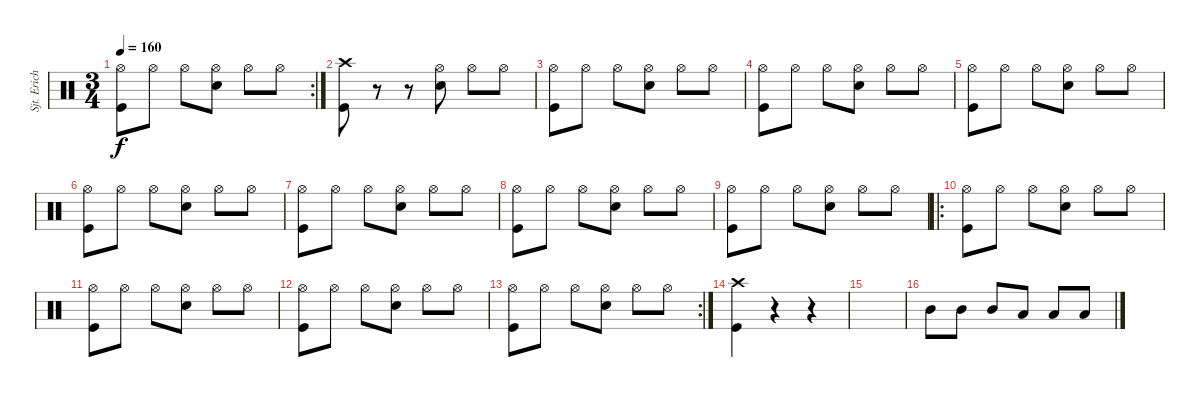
\track ("Sjt. Erichsen" "Sjt. Erich") {instrument percussion}
\staff {score}
\articulation defaults
\rc 2
\ts (3 4)
\tempo 160
\clef neutral
\ks c
("Hi-Hat (open)" "Kick (hit)").8{dy f} "Hi-Hat (open)".8 "Hi-Hat (open)".8 ("Hi-Hat (open)" "Electric Snare (hit)").8 "Hi-Hat (open)".8 "Hi-Hat (open)".8 |
("Crash high (hit)" "Kick (hit)").8 r.8 r.8 ("Hi-Hat (open)" "Electric Snare (hit)").8 "Hi-Hat (open)".8 "Hi-Hat (open)".8 |
("Hi-Hat (open)" "Kick (hit)").8 "Hi-Hat (open)".8 "Hi-Hat (open)".8 ("Hi-Hat (open)" "Electric Snare (hit)").8 "Hi-Hat (open)".8 "Hi-Hat (open)".8 |
("Hi-Hat (open)" "Kick (hit)").8 "Hi-Hat (open)".8 "Hi-Hat (open)".8 ("Hi-Hat (open)" "Electric Snare (hit)").8 "Hi-Hat (open)".8 "Hi-Hat (open)".8 |
("Hi-Hat (open)" "Kick (hit)").8 "Hi-Hat (open)".8 "Hi-Hat (open)".8 ("Hi-Hat (open)" "Electric Snare (hit)").8 "Hi-Hat (open)".8 "Hi-Hat (open)".8 |
("Hi-Hat (open)" "Kick (hit)").8 "Hi-Hat (open)".8 "Hi-Hat (open)".8 ("Hi-Hat (open)" "Electric Snare (hit)").8 "Hi-Hat (open)".8 "Hi-Hat (open)".8 |
("Hi-Hat (open)" "Kick (hit)").8 "Hi-Hat (open)".8 "Hi-Hat (open)".8 ("Hi-Hat (open)" "Electric Snare (hit)").8 "Hi-Hat (open)".8 "Hi-Hat (open)".8 |
("Hi-Hat (open)" "Kick (hit)").8 "Hi-Hat (open)".8 "Hi-Hat (open)".8 ("Hi-Hat (open)" "Electric Snare (hit)").8 "Hi-Hat (open)".8 "Hi-Hat (open)".8 |
("Hi-Hat (open)" "Kick (hit)").8 "Hi-Hat (open)".8 "Hi-Hat (open)".8 ("Hi-Hat (open)" "Electric Snare (hit)").8 "Hi-Hat (open)".8 "Hi-Hat (open)".8 |
\ro
("Hi-Hat (open)" "Kick (hit)").8 "Hi-Hat (open)".8 "Hi-Hat (open)".8 ("Hi-Hat (open)" "Electric Snare (hit)").8 "Hi-Hat (open)".8 "Hi-Hat (open)".8 |
("Hi-Hat (open)" "Kick (hit)").8 "Hi-Hat (open)".8 "Hi-Hat (open)".8 ("Hi-Hat (open)" "Electric Snare (hit)").8 "Hi-Hat (open)".8 "Hi-Hat (open)".8 |
("Hi-Hat (open)" "Kick (hit)").8 "Hi-Hat (open)".8 "Hi-Hat (open)".8 ("Hi-Hat (open)" "Electric Snare (hit)").8 "Hi-Hat (open)".8 "Hi-Hat (open)".8 |
\rc 2
("Hi-Hat (open)" "Kick (hit)").8 "Hi-Hat (open)".8 "Hi-Hat (open)".8 ("Hi-Hat (open)" "Electric Snare (hit)").8 "Hi-Hat (open)".8 "Hi-Hat (open)".8 |
("Crash high (hit)" "Kick (hit)").4 r.4 r.4 |
|
"Mid Tom (hit)".8 "Mid Tom (hit)".8 "Mid Tom (hit)".8 "Low Tom (hit)".8 "Low Tom (hit)".8 "Low Tom (hit)".8
